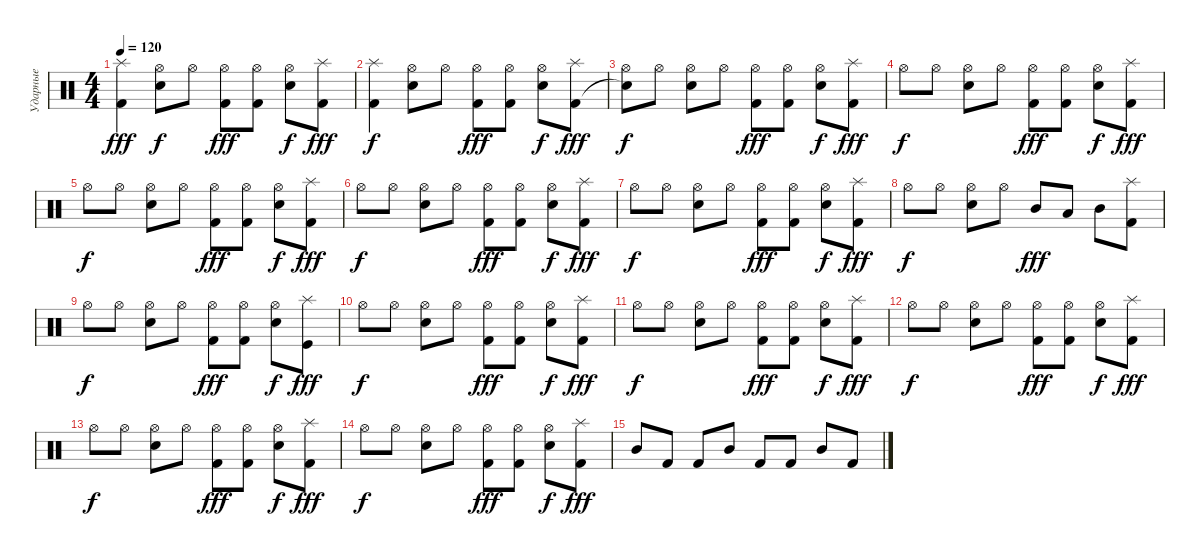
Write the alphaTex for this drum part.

\track ("Ударные" "Ударные") {instrument percussion}
\staff {score}
\articulation defaults
\ts (4 4)
\tempo 120
\clef neutral
\ks c
("Kick (hit) 2" "Splash (hit)").4{dy fff} ("Hi-Hat (open)" "Electric Snare (hit)").8{dy f} "Hi-Hat (open)".8 ("Kick (hit) 2" "Hi-Hat (open)").8{dy fff} ("Kick (hit) 2" "Hi-Hat (open)").8 ("Hi-Hat (open)" "Electric Snare (hit)").8{dy f} ("Kick (hit) 2" "Splash (hit)").8{dy fff} |
("Kick (hit) 2" "Splash (hit)").4{dy f} ("Hi-Hat (open)" "Electric Snare (hit)").8 "Hi-Hat (open)".8 ("Kick (hit) 2" "Hi-Hat (open)").8{dy fff} ("Kick (hit) 2" "Hi-Hat (open)").8 ("Hi-Hat (open)" "Electric Snare (hit)").8{dy f} ("Kick (hit) 2" "Splash (hit)").8{dy fff} |
("Snare (hit)"{t} "Hi-Hat (open)").8{dy f} "Hi-Hat (open)".8 ("Hi-Hat (open)" "Electric Snare (hit)").8 "Hi-Hat (open)".8 ("Kick (hit) 2" "Hi-Hat (open)").8{dy fff} ("Kick (hit) 2" "Hi-Hat (open)").8 ("Hi-Hat (open)" "Electric Snare (hit)").8{dy f} ("Kick (hit) 2" "Splash (hit)").8{dy fff} |
"Hi-Hat (open)".8{dy f} "Hi-Hat (open)".8 ("Hi-Hat (open)" "Electric Snare (hit)").8 "Hi-Hat (open)".8 ("Kick (hit) 2" "Hi-Hat (open)").8{dy fff} ("Kick (hit) 2" "Hi-Hat (open)").8 ("Hi-Hat (open)" "Electric Snare (hit)").8{dy f} ("Kick (hit) 2" "Splash (hit)").8{dy fff} |
"Hi-Hat (open)".8{dy f} "Hi-Hat (open)".8 ("Hi-Hat (open)" "Electric Snare (hit)").8 "Hi-Hat (open)".8 ("Kick (hit) 2" "Hi-Hat (open)").8{dy fff} ("Kick (hit) 2" "Hi-Hat (open)").8 ("Hi-Hat (open)" "Electric Snare (hit)").8{dy f} ("Kick (hit) 2" "Splash (hit)").8{dy fff} |
"Hi-Hat (open)".8{dy f} "Hi-Hat (open)".8 ("Hi-Hat (open)" "Electric Snare (hit)").8 "Hi-Hat (open)".8 ("Kick (hit) 2" "Hi-Hat (open)").8{dy fff} ("Kick (hit) 2" "Hi-Hat (open)").8 ("Hi-Hat (open)" "Electric Snare (hit)").8{dy f} ("Kick (hit) 2" "Splash (hit)").8{dy fff} |
"Hi-Hat (open)".8{dy f} "Hi-Hat (open)".8 ("Hi-Hat (open)" "Electric Snare (hit)").8 "Hi-Hat (open)".8 ("Kick (hit) 2" "Hi-Hat (open)").8{dy fff} ("Kick (hit) 2" "Hi-Hat (open)").8 ("Hi-Hat (open)" "Electric Snare (hit)").8{dy f} ("Kick (hit) 2" "Splash (hit)").8{dy fff} |
"Hi-Hat (open)".8{dy f} "Hi-Hat (open)".8 ("Hi-Hat (open)" "Electric Snare (hit)").8 "Hi-Hat (open)".8 "Mid Tom (hit)".8{dy fff} "Low Tom (hit)".8 "Mid Tom (hit)".8 ("Kick (hit) 2" "Splash (hit)").8 |
"Hi-Hat (open)".8{dy f} "Hi-Hat (open)".8 ("Hi-Hat (open)" "Electric Snare (hit)").8 "Hi-Hat (open)".8 ("Kick (hit) 2" "Hi-Hat (open)").8{dy fff} ("Kick (hit) 2" "Hi-Hat (open)").8 ("Hi-Hat (open)" "Electric Snare (hit)").8{dy f} ("Kick (hit)" "Splash (hit)").8{dy fff} |
"Hi-Hat (open)".8{dy f} "Hi-Hat (open)".8 ("Hi-Hat (open)" "Electric Snare (hit)").8 "Hi-Hat (open)".8 ("Kick (hit) 2" "Hi-Hat (open)").8{dy fff} ("Kick (hit) 2" "Hi-Hat (open)").8 ("Hi-Hat (open)" "Electric Snare (hit)").8{dy f} ("Kick (hit) 2" "Splash (hit)").8{dy fff} |
"Hi-Hat (open)".8{dy f} "Hi-Hat (open)".8 ("Hi-Hat (open)" "Electric Snare (hit)").8 "Hi-Hat (open)".8 ("Kick (hit) 2" "Hi-Hat (open)").8{dy fff} ("Kick (hit) 2" "Hi-Hat (open)").8 ("Hi-Hat (open)" "Electric Snare (hit)").8{dy f} ("Kick (hit) 2" "Splash (hit)").8{dy fff} |
"Hi-Hat (open)".8{dy f} "Hi-Hat (open)".8 ("Hi-Hat (open)" "Electric Snare (hit)").8 "Hi-Hat (open)".8 ("Kick (hit) 2" "Hi-Hat (open)").8{dy fff} ("Kick (hit) 2" "Hi-Hat (open)").8 ("Hi-Hat (open)" "Electric Snare (hit)").8{dy f} ("Kick (hit) 2" "Splash (hit)").8{dy fff} |
"Hi-Hat (open)".8{dy f} "Hi-Hat (open)".8 ("Hi-Hat (open)" "Electric Snare (hit)").8 "Hi-Hat (open)".8 ("Kick (hit) 2" "Hi-Hat (open)").8{dy fff} ("Kick (hit) 2" "Hi-Hat (open)").8 ("Hi-Hat (open)" "Electric Snare (hit)").8{dy f} ("Kick (hit) 2" "Splash (hit)").8{dy fff} |
"Hi-Hat (open)".8{dy f} "Hi-Hat (open)".8 ("Hi-Hat (open)" "Electric Snare (hit)").8 "Hi-Hat (open)".8 ("Kick (hit) 2" "Hi-Hat (open)").8{dy fff} ("Kick (hit) 2" "Hi-Hat (open)").8 ("Hi-Hat (open)" "Electric Snare (hit)").8{dy f} ("Kick (hit) 2" "Splash (hit)").8{dy fff} |
"Mid Tom (hit)".8 "Kick (hit) 2".8 "Kick (hit) 2".8 "Mid Tom (hit)".8 "Kick (hit) 2".8 "Kick (hit) 2".8 "Mid Tom (hit)".8 "Kick (hit) 2".8
